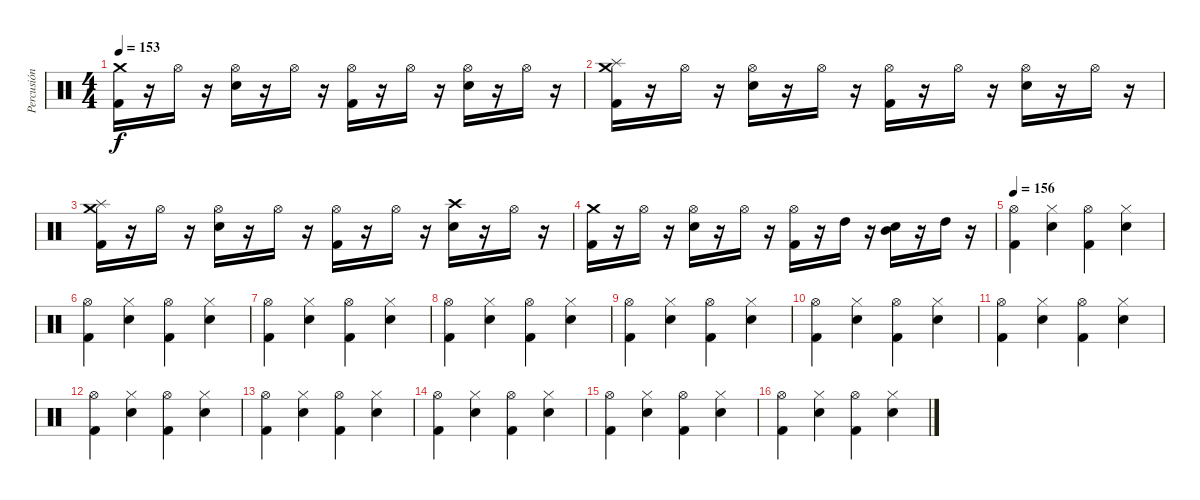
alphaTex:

\track ("Percusión" "Percusión") {instrument percussion}
\staff {score}
\articulation defaults
\ts (4 4)
\tempo 153
\clef neutral
\ks c
("Kick (hit) 2" "Crash medium (hit)").16{dy f} r.16 "Hi-Hat (open)".16 r.16 ("Electric Snare (hit)" "Hi-Hat (open)").16 r.16 "Hi-Hat (open)".16 r.16 ("Kick (hit) 2" "Hi-Hat (open)").16 r.16 "Hi-Hat (open)".16 r.16 ("Electric Snare (hit)" "Hi-Hat (open)").16 r.16 "Hi-Hat (open)".16 r.16 |
("Kick (hit) 2" "Crash medium (hit)" "Splash (hit)").16 r.16 "Hi-Hat (open)".16 r.16 ("Electric Snare (hit)" "Hi-Hat (open)").16 r.16 "Hi-Hat (open)".16 r.16 ("Kick (hit) 2" "Hi-Hat (open)").16 r.16 "Hi-Hat (open)".16 r.16 ("Electric Snare (hit)" "Hi-Hat (open)").16 r.16 "Hi-Hat (open)".16 r.16 |
("Kick (hit) 2" "Crash medium (hit)" "Splash (hit)").16 r.16 "Hi-Hat (open)".16 r.16 ("Electric Snare (hit)" "Hi-Hat (open)").16 r.16 "Hi-Hat (open)".16 r.16 ("Kick (hit) 2" "Hi-Hat (open)").16 r.16 "Hi-Hat (open)".16 r.16 ("Electric Snare (hit)" "Crash high (hit)").16 r.16 "Hi-Hat (open)".16 r.16 |
("Kick (hit) 2" "Crash medium (hit)").16 r.16 "Hi-Hat (open)".16 r.16 ("Snare (hit) 2" "Hi-Hat (open)").16 r.16 "Hi-Hat (open)".16 r.16 ("Kick (hit) 2" "Hi-Hat (open)").16 r.16 "High Tom (hit)".16 r.16 ("Mid Tom (hit)" "Snare (hit) 2").16 r.16 "High Tom (hit)".16 r.16 |
\tempo 156
("Kick (hit) 2" "Hi-Hat (open)").4 ("Electric Snare (hit)" "Hi-Hat (closed)").4 ("Kick (hit) 2" "Hi-Hat (open)").4 ("Electric Snare (hit)" "Hi-Hat (closed)").4 |
("Kick (hit) 2" "Hi-Hat (open)").4 ("Electric Snare (hit)" "Hi-Hat (closed)").4 ("Kick (hit) 2" "Hi-Hat (open)").4 ("Electric Snare (hit)" "Hi-Hat (closed)").4 |
("Kick (hit) 2" "Hi-Hat (open)").4 ("Electric Snare (hit)" "Hi-Hat (closed)").4 ("Kick (hit) 2" "Hi-Hat (open)").4 ("Electric Snare (hit)" "Hi-Hat (closed)").4 |
("Kick (hit) 2" "Hi-Hat (open)").4 ("Electric Snare (hit)" "Hi-Hat (closed)").4 ("Kick (hit) 2" "Hi-Hat (open)").4 ("Electric Snare (hit)" "Hi-Hat (closed)").4 |
("Kick (hit) 2" "Hi-Hat (open)").4 ("Electric Snare (hit)" "Hi-Hat (closed)").4 ("Kick (hit) 2" "Hi-Hat (open)").4 ("Electric Snare (hit)" "Hi-Hat (closed)").4 |
("Kick (hit) 2" "Hi-Hat (open)").4 ("Electric Snare (hit)" "Hi-Hat (closed)").4 ("Kick (hit) 2" "Hi-Hat (open)").4 ("Electric Snare (hit)" "Hi-Hat (closed)").4 |
("Kick (hit) 2" "Hi-Hat (open)").4 ("Electric Snare (hit)" "Hi-Hat (closed)").4 ("Kick (hit) 2" "Hi-Hat (open)").4 ("Electric Snare (hit)" "Hi-Hat (closed)").4 |
("Kick (hit) 2" "Hi-Hat (open)").4 ("Electric Snare (hit)" "Hi-Hat (closed)").4 ("Kick (hit) 2" "Hi-Hat (open)").4 ("Electric Snare (hit)" "Hi-Hat (closed)").4 |
("Kick (hit) 2" "Hi-Hat (open)").4 ("Electric Snare (hit)" "Hi-Hat (closed)").4 ("Kick (hit) 2" "Hi-Hat (open)").4 ("Electric Snare (hit)" "Hi-Hat (closed)").4 |
("Kick (hit) 2" "Hi-Hat (open)").4 ("Electric Snare (hit)" "Hi-Hat (closed)").4 ("Kick (hit) 2" "Hi-Hat (open)").4 ("Electric Snare (hit)" "Hi-Hat (closed)").4 |
("Kick (hit) 2" "Hi-Hat (open)").4 ("Electric Snare (hit)" "Hi-Hat (closed)").4 ("Kick (hit) 2" "Hi-Hat (open)").4 ("Electric Snare (hit)" "Hi-Hat (closed)").4 |
("Kick (hit) 2" "Hi-Hat (open)").4 ("Electric Snare (hit)" "Hi-Hat (closed)").4 ("Kick (hit) 2" "Hi-Hat (open)").4 ("Electric Snare (hit)" "Hi-Hat (closed)").4
